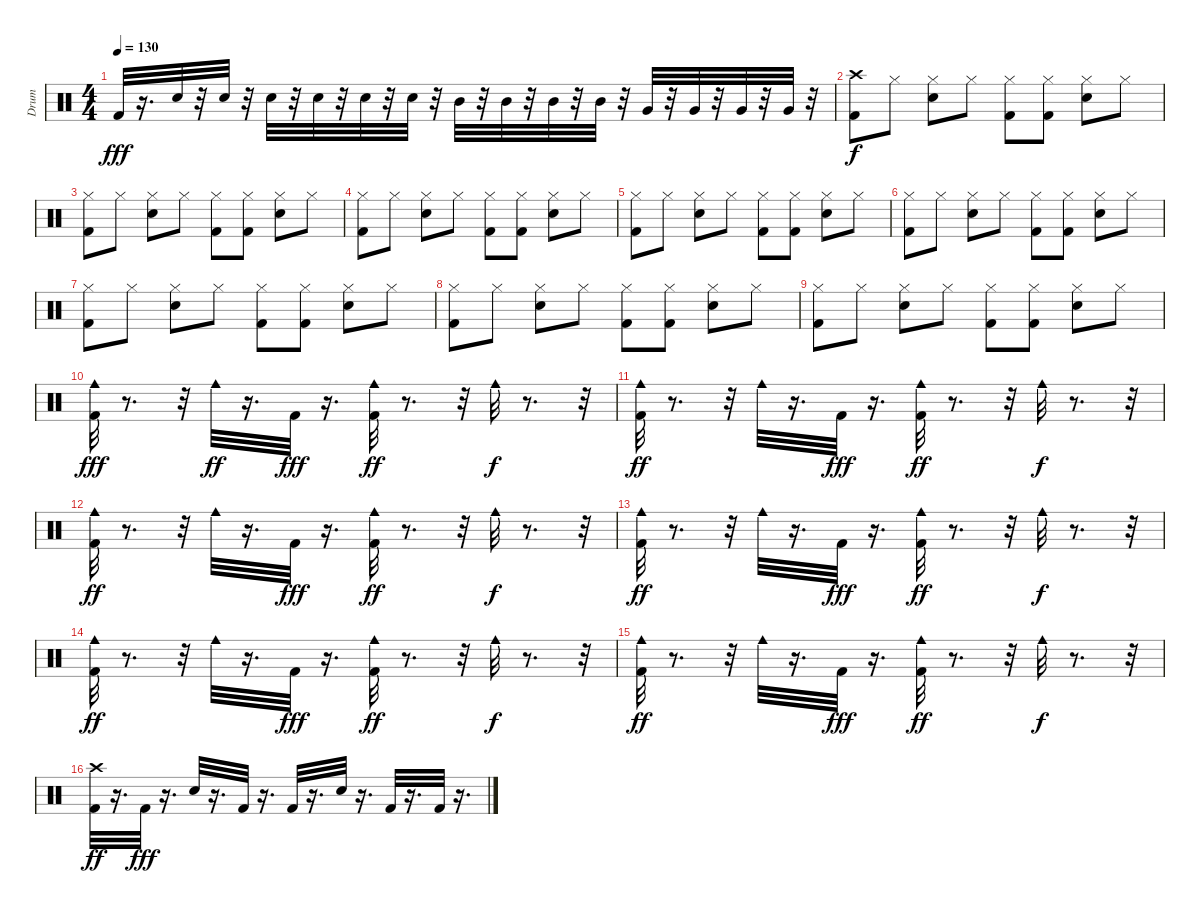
\track ("Drum" "Drum") {instrument percussion}
\staff {score}
\articulation defaults
\ts (4 4)
\tempo 130
\clef neutral
\ks c "Kick (hit) 2".32{dy fff}
r.16{d} "Snare (hit) 2".32 r.32 "Electric Snare (hit)".32 r.32 "Snare (hit) 2".32 r.32 "Electric Snare (hit)".32 r.32 "Snare (hit) 2".32 r.32 "Electric Snare (hit)".32 r.32 "Mid Tom (hit)".32 r.32 "Mid Tom (hit)".32 r.32 "Mid Tom (hit)".32 r.32 "Mid Tom (hit)".32 r.32 "Very Low Tom (hit)".32 r.32 "Very Low Tom (hit)".32 r.32 "Very Low Tom (hit)".32 r.32 "Very Low Tom (hit)".32 r.32 |
("Crash high (hit)" "Kick (hit) 2").8{dy f} "Hi-Hat (closed)".8 ("Hi-Hat (closed)" "Snare (hit) 2").8 "Hi-Hat (closed)".8 ("Hi-Hat (closed)" "Kick (hit) 2").8 ("Hi-Hat (closed)" "Kick (hit) 2").8 ("Hi-Hat (closed)" "Snare (hit) 2").8 "Hi-Hat (closed)".8 |
("Hi-Hat (closed)" "Kick (hit) 2").8 "Hi-Hat (closed)".8 ("Hi-Hat (closed)" "Snare (hit) 2").8 "Hi-Hat (closed)".8 ("Hi-Hat (closed)" "Kick (hit) 2").8 ("Hi-Hat (closed)" "Kick (hit) 2").8 ("Hi-Hat (closed)" "Snare (hit) 2").8 "Hi-Hat (closed)".8 |
("Hi-Hat (closed)" "Kick (hit) 2").8 "Hi-Hat (closed)".8 ("Hi-Hat (closed)" "Snare (hit) 2").8 "Hi-Hat (closed)".8 ("Hi-Hat (closed)" "Kick (hit) 2").8 ("Hi-Hat (closed)" "Kick (hit) 2").8 ("Hi-Hat (closed)" "Snare (hit) 2").8 "Hi-Hat (closed)".8 |
("Hi-Hat (closed)" "Kick (hit) 2").8 "Hi-Hat (closed)".8 ("Hi-Hat (closed)" "Snare (hit) 2").8 "Hi-Hat (closed)".8 ("Hi-Hat (closed)" "Kick (hit) 2").8 ("Hi-Hat (closed)" "Kick (hit) 2").8 ("Hi-Hat (closed)" "Snare (hit) 2").8 "Hi-Hat (closed)".8 |
("Hi-Hat (closed)" "Kick (hit) 2").8 "Hi-Hat (closed)".8 ("Hi-Hat (closed)" "Snare (hit) 2").8 "Hi-Hat (closed)".8 ("Hi-Hat (closed)" "Kick (hit) 2").8 ("Hi-Hat (closed)" "Kick (hit) 2").8 ("Hi-Hat (closed)" "Snare (hit) 2").8 "Hi-Hat (closed)".8 |
("Hi-Hat (closed)" "Kick (hit) 2").8 "Hi-Hat (closed)".8 ("Hi-Hat (closed)" "Snare (hit) 2").8 "Hi-Hat (closed)".8 ("Hi-Hat (closed)" "Kick (hit) 2").8 ("Hi-Hat (closed)" "Kick (hit) 2").8 ("Hi-Hat (closed)" "Snare (hit) 2").8 "Hi-Hat (closed)".8 |
("Hi-Hat (closed)" "Kick (hit) 2").8 "Hi-Hat (closed)".8 ("Hi-Hat (closed)" "Snare (hit) 2").8 "Hi-Hat (closed)".8 ("Hi-Hat (closed)" "Kick (hit) 2").8 ("Hi-Hat (closed)" "Kick (hit) 2").8 ("Hi-Hat (closed)" "Snare (hit) 2").8 "Hi-Hat (closed)".8 |
("Hi-Hat (closed)" "Kick (hit) 2").8 "Hi-Hat (closed)".8 ("Hi-Hat (closed)" "Snare (hit) 2").8 "Hi-Hat (closed)".8 ("Hi-Hat (closed)" "Kick (hit) 2").8 ("Hi-Hat (closed)" "Kick (hit) 2").8 ("Hi-Hat (closed)" "Snare (hit) 2").8 "Hi-Hat (closed)".8 |
("Cowbell medium (hit)" "Kick (hit) 2").32{dy fff} r.8{d} r.32 "Cowbell medium (hit)".32{dy ff} r.16{d} "Kick (hit) 2".32{dy fff} r.16{d} ("Kick (hit) 2" "Cowbell medium (hit)").32{dy ff} r.8{d} r.32 "Cowbell medium (hit)".32{dy f} r.8{d} r.32 |
("Kick (hit) 2" "Cowbell medium (hit)").32{dy ff} r.8{d} r.32 "Cowbell medium (hit)".32 r.16{d} "Kick (hit) 2".32{dy fff} r.16{d} ("Kick (hit) 2" "Cowbell medium (hit)").32{dy ff} r.8{d} r.32 "Cowbell medium (hit)".32{dy f} r.8{d} r.32 |
("Kick (hit) 2" "Cowbell medium (hit)").32{dy ff} r.8{d} r.32 "Cowbell medium (hit)".32 r.16{d} "Kick (hit) 2".32{dy fff} r.16{d} ("Kick (hit) 2" "Cowbell medium (hit)").32{dy ff} r.8{d} r.32 "Cowbell medium (hit)".32{dy f} r.8{d} r.32 |
("Kick (hit) 2" "Cowbell medium (hit)").32{dy ff} r.8{d} r.32 "Cowbell medium (hit)".32 r.16{d} "Kick (hit) 2".32{dy fff} r.16{d} ("Kick (hit) 2" "Cowbell medium (hit)").32{dy ff} r.8{d} r.32 "Cowbell medium (hit)".32{dy f} r.8{d} r.32 |
("Kick (hit) 2" "Cowbell medium (hit)").32{dy ff} r.8{d} r.32 "Cowbell medium (hit)".32 r.16{d} "Kick (hit) 2".32{dy fff} r.16{d} ("Kick (hit) 2" "Cowbell medium (hit)").32{dy ff} r.8{d} r.32 "Cowbell medium (hit)".32{dy f} r.8{d} r.32 |
("Kick (hit) 2" "Cowbell medium (hit)").32{dy ff} r.8{d} r.32 "Cowbell medium (hit)".32 r.16{d} "Kick (hit) 2".32{dy fff} r.16{d} ("Kick (hit) 2" "Cowbell medium (hit)").32{dy ff} r.8{d} r.32 "Cowbell medium (hit)".32{dy f} r.8{d} r.32 |
("Kick (hit) 2" "Crash high (hit)").32{dy ff} r.16{d} "Kick (hit) 2".32{dy fff} r.16{d} "Snare (hit) 2".32 r.16{d} "Kick (hit) 2".32 r.16{d} "Kick (hit) 2".32 r.16{d} "Snare (hit) 2".32 r.16{d} "Kick (hit) 2".32 r.16{d} "Kick (hit) 2".32 r.16{d}
